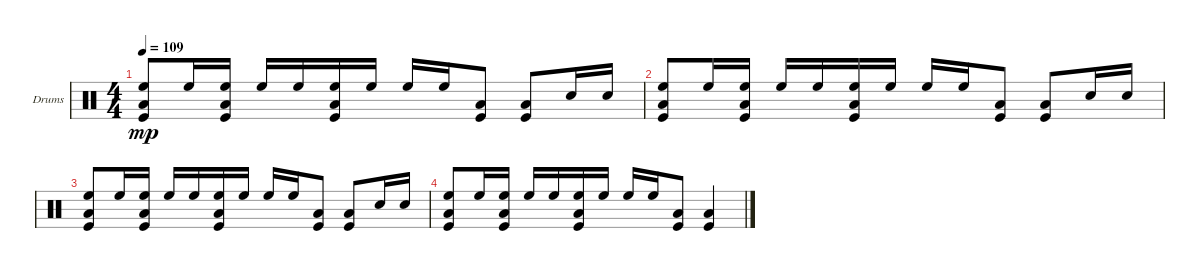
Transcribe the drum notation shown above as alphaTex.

\defaultSystemsLayout 4
\bracketExtendMode groupsimilarinstruments
\firstSystemTrackNameOrientation horizontal
\otherSystemsTrackNameOrientation horizontal
\track ("Drumkit" "Drums") {instrument percussion}
\staff {score}
\articulation defaults
\ts (4 4)
\tempo 109
\clef neutral
\scale
0.5
\ks c
("Kick (hit)" "Low Tom (hit)" "High Floor Tom (hit)").8{dy mp} "High Floor Tom (hit)".16 ("Kick (hit)" "Low Tom (hit)" "High Floor Tom (hit)").16 "High Floor Tom (hit)".16 "High Floor Tom (hit)".16 ("Kick (hit)" "Low Tom (hit)" "High Floor Tom (hit)").16 "High Floor Tom (hit)".16 "High Floor Tom (hit)".16 "High Floor Tom (hit)".16 ("Kick (hit)" "Low Tom (hit)").8 ("Kick (hit)" "Low Tom (hit)").8 "Snare (hit) 2".16 "Snare (hit) 2".16 |
\scale
0.5 ("Kick (hit)" "Low Tom (hit)" "High Floor Tom (hit)").8 "High Floor Tom (hit)".16 ("Kick (hit)" "Low Tom (hit)" "High Floor Tom (hit)").16 "High Floor Tom (hit)".16 "High Floor Tom (hit)".16 ("Kick (hit)" "Low Tom (hit)" "High Floor Tom (hit)").16 "High Floor Tom (hit)".16 "High Floor Tom (hit)".16 "High Floor Tom (hit)".16 ("Kick (hit)" "Low Tom (hit)").8 ("Kick (hit)" "Low Tom (hit)").8 "Snare (hit) 2".16 "Snare (hit) 2".16 |
\scale
0.5 ("Kick (hit)" "Low Tom (hit)" "High Floor Tom (hit)").8 "High Floor Tom (hit)".16 ("Kick (hit)" "Low Tom (hit)" "High Floor Tom (hit)").16 "High Floor Tom (hit)".16 "High Floor Tom (hit)".16 ("Kick (hit)" "Low Tom (hit)" "High Floor Tom (hit)").16 "High Floor Tom (hit)".16 "High Floor Tom (hit)".16 "High Floor Tom (hit)".16 ("Kick (hit)" "Low Tom (hit)").8 ("Kick (hit)" "Low Tom (hit)").8 "Snare (hit) 2".16 "Snare (hit) 2".16 |
\scale
0.5 ("Kick (hit)" "Low Tom (hit)" "High Floor Tom (hit)").8 "High Floor Tom (hit)".16 ("Kick (hit)" "Low Tom (hit)" "High Floor Tom (hit)").16 "High Floor Tom (hit)".16 "High Floor Tom (hit)".16 ("Kick (hit)" "Low Tom (hit)" "High Floor Tom (hit)").16 "High Floor Tom (hit)".16 "High Floor Tom (hit)".16 "High Floor Tom (hit)".16 ("Kick (hit)" "Low Tom (hit)").8 ("Kick (hit)" "Low Tom (hit)").4
